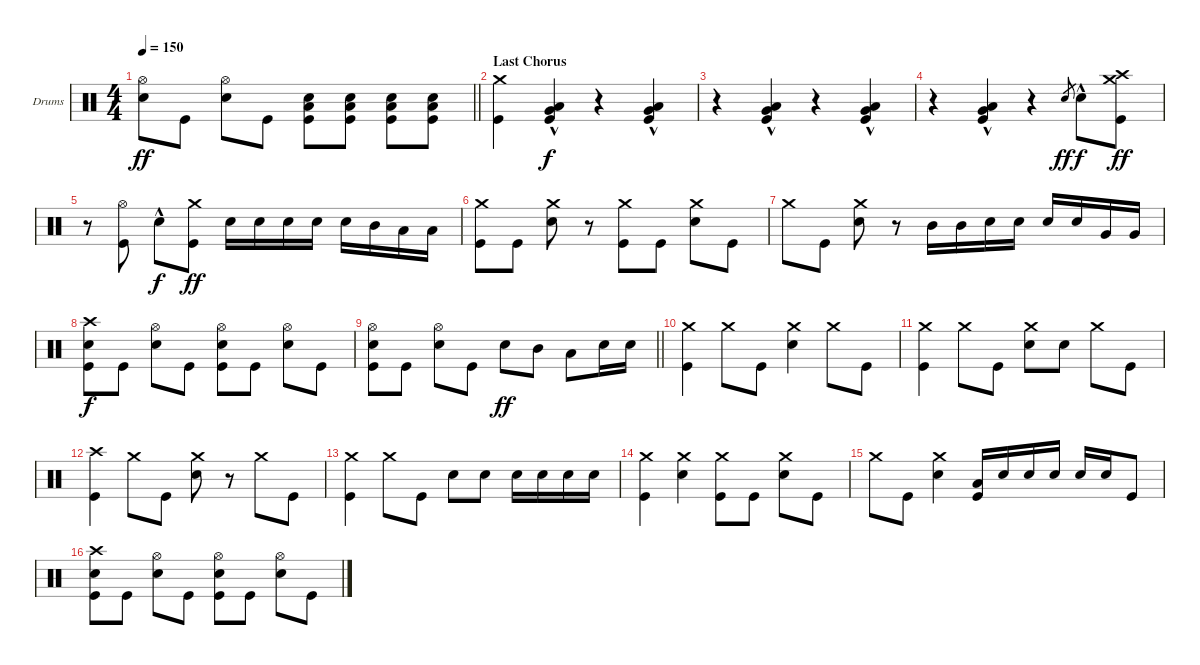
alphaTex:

\bracketExtendMode groupsimilarinstruments
\firstSystemTrackNameOrientation horizontal
\otherSystemsTrackNameOrientation horizontal
\track ("Drumkit" "Drums") {instrument percussion}
\staff {score}
\articulation defaults
\ts (4 4)
\tempo 150
\clef neutral
\barLineRight lightlight
\ks c
("Hi-Hat (open)" "Snare (hit) 2").8{dy ff} "Kick (hit)".8 ("Hi-Hat (open)" "Snare (hit) 2").8 "Kick (hit)".8 ("Snare (hit) 2" "Low Tom (hit)" "Kick (hit)").8 ("Snare (hit) 2" "Low Tom (hit)" "Kick (hit)").8 ("Snare (hit) 2" "Low Tom (hit)" "Kick (hit)").8 ("Snare (hit) 2" "Low Tom (hit)" "Kick (hit)").8 |
\section ("" "Last Chorus")
("Crash medium (hit)" "Kick (hit)").4 ("Low Tom (hit)"{hac} "Very Low Tom (hit)"{hac} "Kick (hit)"{hac}).4{dy f} r.4 ("Low Tom (hit)"{hac} "Very Low Tom (hit)"{hac} "Kick (hit)"{hac}).4 |
r.4 ("Low Tom (hit)"{hac} "Very Low Tom (hit)"{hac} "Kick (hit)"{hac}).4 r.4 ("Low Tom (hit)"{hac} "Very Low Tom (hit)"{hac} "Kick (hit)"{hac}).4 |
r.4 ("Low Tom (hit)"{hac} "Very Low Tom (hit)"{hac} "Kick (hit)"{hac}).4 r.4 "Snare (hit) 2".8{gr dy ff} "Snare (hit) 2"{hac}.8{dy f} ("Crash high (hit)" "Crash medium (hit)" "Kick (hit)").8{dy ff} |
r.8 ("Hi-Hat (open)" "Kick (hit)").8 "Snare (hit) 2"{hac}.8{dy f} ("Crash medium (hit)" "Kick (hit)").8{dy ff} "Snare (hit) 2".16 "Snare (hit) 2".16 "Snare (hit) 2".16 "Snare (hit) 2".16 "Snare (hit) 2".16 "Mid Tom (hit)".16 "Low Tom (hit)".16 "Low Tom (hit)".16 |
("Crash medium (hit)" "Kick (hit)").8 "Kick (hit)".8 ("Crash medium (hit)" "Snare (hit) 2").8 r.8 ("Crash medium (hit)" "Kick (hit)").8 "Kick (hit)".8 ("Crash medium (hit)" "Snare (hit) 2").8 "Kick (hit)".8 |
"Crash medium (hit)".8 "Kick (hit)".8 ("Crash medium (hit)" "Snare (hit) 2").8 r.8 "Mid Tom (hit)".16 "Mid Tom (hit)".16 "Snare (hit) 2".16 "Snare (hit) 2".16 "Snare (hit) 2".16 "Snare (hit) 2".16 "Very Low Tom (hit)".16 "Very Low Tom (hit)".16 |
("Crash high (hit)" "Snare (hit) 2" "Kick (hit)").8{dy f} "Kick (hit)".8 ("Hi-Hat (open)" "Snare (hit) 2").8 "Kick (hit)".8 ("Hi-Hat (open)" "Snare (hit) 2" "Kick (hit)").8 "Kick (hit)".8 ("Hi-Hat (open)" "Snare (hit) 2").8 "Kick (hit)".8 |
\barLineRight lightlight
("Hi-Hat (open)" "Snare (hit) 2" "Kick (hit)").8 "Kick (hit)".8 ("Hi-Hat (open)" "Snare (hit) 2").8 "Kick (hit)".8 "Snare (hit) 2".8{dy ff} "Mid Tom (hit)".8 "Low Tom (hit)".8 "Snare (hit) 2".16 "Snare (hit) 2".16 |
("Crash medium (hit)" "Kick (hit)").4 "Crash medium (hit)".8 "Kick (hit)".8 ("Crash medium (hit)" "Snare (hit) 2").4 "Crash medium (hit)".8 "Kick (hit)".8 |
("Crash medium (hit)" "Kick (hit)").4 "Crash medium (hit)".8 "Kick (hit)".8 ("Crash medium (hit)" "Snare (hit) 2").8 "Snare (hit) 2".8 "Crash medium (hit)".8 "Kick (hit)".8 |
("Crash high (hit)" "Kick (hit)").4 "Crash medium (hit)".8 "Kick (hit)".8 ("Crash medium (hit)" "Snare (hit) 2").8 r.8 "Crash medium (hit)".8 "Kick (hit)".8 |
("Crash medium (hit)" "Kick (hit)").4 "Crash medium (hit)".8 "Kick (hit)".8 "Snare (hit) 2".8 "Snare (hit) 2".8 "Snare (hit) 2".16 "Snare (hit) 2".16 "Snare (hit) 2".16 "Snare (hit) 2".16 |
("Crash medium (hit)" "Kick (hit)").4 ("Crash medium (hit)" "Snare (hit) 2").4 ("Crash medium (hit)" "Kick (hit)").8 "Kick (hit)".8 ("Crash medium (hit)" "Snare (hit) 2").8 "Kick (hit)".8 |
"Crash medium (hit)".8 "Kick (hit)".8 ("Crash medium (hit)" "Snare (hit) 2").4 ("Low Tom (hit)" "Kick (hit)").16 "Snare (hit) 2".16 "Snare (hit) 2".16 "Snare (hit) 2".16 "Snare (hit) 2".16 "Snare (hit) 2".16 "Kick (hit)".8 |
("Crash high (hit)" "Snare (hit) 2" "Kick (hit)").8 "Kick (hit)".8 ("Hi-Hat (open)" "Snare (hit) 2").8 "Kick (hit)".8 ("Hi-Hat (open)" "Snare (hit) 2" "Kick (hit)").8 "Kick (hit)".8 ("Hi-Hat (open)" "Snare (hit) 2").8 "Kick (hit)".8
